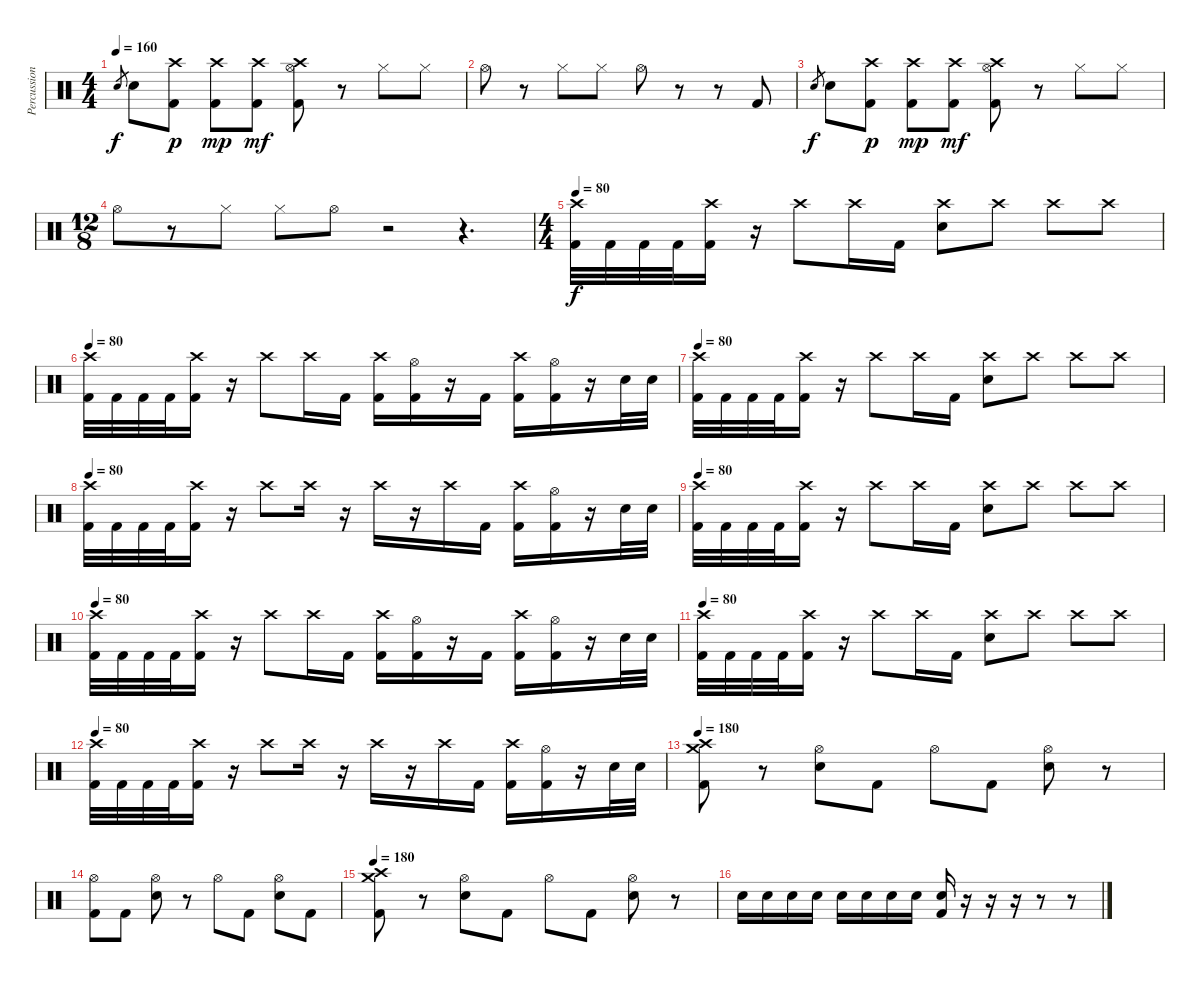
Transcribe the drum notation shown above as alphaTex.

\track ("Percussion" "Percussion") {instrument percussion}
\staff {score}
\articulation defaults
\ts (4 4)
\tempo 160
\clef neutral
\ks c "Electric Snare (hit)".8{gr dy f} "Electric Snare (hit)".8
("Crash high (hit)" "Kick (hit) 2").8{dy p} ("Crash high (hit)" "Kick (hit) 2").8{dy mp} ("Crash high (hit)" "Kick (hit) 2").8{dy mf} ("Crash high (hit)" "Hi-Hat (open)" "Kick (hit) 2").8 r.8 "Hi-Hat (closed)".8 "Hi-Hat (closed)".8 |
"Hi-Hat (open)".8 r.8 "Hi-Hat (closed)".8 "Hi-Hat (closed)".8 "Hi-Hat (open)".8 r.8 r.8 "Kick (hit) 2".8 |
"Electric Snare (hit)".8{gr dy f} "Electric Snare (hit)".8 ("Crash high (hit)" "Kick (hit) 2").8{dy p} ("Crash high (hit)" "Kick (hit) 2").8{dy mp} ("Crash high (hit)" "Kick (hit) 2").8{dy mf} ("Crash high (hit)" "Hi-Hat (open)" "Kick (hit) 2").8 r.8 "Hi-Hat (closed)".8 "Hi-Hat (closed)".8 |
\ts (12 8)
"Hi-Hat (open)".8 r.8 "Hi-Hat (closed)".8 "Hi-Hat (closed)".8 "Hi-Hat (open)".8 r.2 r.4{d} |
\ts (4 4)
\tempo 80
("Crash high (hit)" "Kick (hit) 2").32{dy f} "Kick (hit) 2".32 "Kick (hit) 2".32 "Kick (hit) 2".32 ("Crash high (hit)" "Kick (hit) 2").16 r.16 "Crash high (hit)".8 "Crash high (hit)".16 "Kick (hit) 2".16 ("Crash high (hit)" "Electric Snare (hit)").8 "Crash high (hit)".8 "Crash high (hit)".8 "Crash high (hit)".8 |
\tempo 80
("Crash high (hit)" "Kick (hit) 2").32 "Kick (hit) 2".32 "Kick (hit) 2".32 "Kick (hit) 2".32 ("Crash high (hit)" "Kick (hit) 2").16 r.16 "Crash high (hit)".8 "Crash high (hit)".16 "Kick (hit) 2".16 ("Crash high (hit)" "Kick (hit) 2").16 ("Hi-Hat (open)" "Kick (hit) 2").16 r.16 "Kick (hit) 2".16 ("Crash high (hit)" "Kick (hit) 2").16 ("Hi-Hat (open)" "Kick (hit) 2").16 r.16 "Electric Snare (hit)".32 "Electric Snare (hit)".32 |
\tempo 80
("Crash high (hit)" "Kick (hit) 2").32 "Kick (hit) 2".32 "Kick (hit) 2".32 "Kick (hit) 2".32 ("Crash high (hit)" "Kick (hit) 2").16 r.16 "Crash high (hit)".8 "Crash high (hit)".16 "Kick (hit) 2".16 ("Crash high (hit)" "Electric Snare (hit)").8 "Crash high (hit)".8 "Crash high (hit)".8 "Crash high (hit)".8 |
\tempo 80
("Crash high (hit)" "Kick (hit) 2").32 "Kick (hit) 2".32 "Kick (hit) 2".32 "Kick (hit) 2".32 ("Crash high (hit)" "Kick (hit) 2").16 r.16 "Crash high (hit)".8 "Crash high (hit)".16 r.16 "Crash high (hit)".16 r.16 "Crash high (hit)".16 "Kick (hit) 2".16 ("Crash high (hit)" "Kick (hit) 2").16 ("Hi-Hat (open)" "Kick (hit) 2").16 r.16 "Electric Snare (hit)".32 "Electric Snare (hit)".32 |
\tempo 80
("Crash high (hit)" "Kick (hit) 2").32 "Kick (hit) 2".32 "Kick (hit) 2".32 "Kick (hit) 2".32 ("Crash high (hit)" "Kick (hit) 2").16 r.16 "Crash high (hit)".8 "Crash high (hit)".16 "Kick (hit) 2".16 ("Crash high (hit)" "Electric Snare (hit)").8 "Crash high (hit)".8 "Crash high (hit)".8 "Crash high (hit)".8 |
\tempo 80
("Crash high (hit)" "Kick (hit) 2").32 "Kick (hit) 2".32 "Kick (hit) 2".32 "Kick (hit) 2".32 ("Crash high (hit)" "Kick (hit) 2").16 r.16 "Crash high (hit)".8 "Crash high (hit)".16 "Kick (hit) 2".16 ("Crash high (hit)" "Kick (hit) 2").16 ("Hi-Hat (open)" "Kick (hit) 2").16 r.16 "Kick (hit) 2".16 ("Crash high (hit)" "Kick (hit) 2").16 ("Hi-Hat (open)" "Kick (hit) 2").16 r.16 "Electric Snare (hit)".32 "Electric Snare (hit)".32 |
\tempo 80
("Crash high (hit)" "Kick (hit) 2").32 "Kick (hit) 2".32 "Kick (hit) 2".32 "Kick (hit) 2".32 ("Crash high (hit)" "Kick (hit) 2").16 r.16 "Crash high (hit)".8 "Crash high (hit)".16 "Kick (hit) 2".16 ("Crash high (hit)" "Electric Snare (hit)").8 "Crash high (hit)".8 "Crash high (hit)".8 "Crash high (hit)".8 |
\tempo 80
("Crash high (hit)" "Kick (hit) 2").32 "Kick (hit) 2".32 "Kick (hit) 2".32 "Kick (hit) 2".32 ("Crash high (hit)" "Kick (hit) 2").16 r.16 "Crash high (hit)".8 "Crash high (hit)".16 r.16 "Crash high (hit)".16 r.16 "Crash high (hit)".16 "Kick (hit) 2".16 ("Crash high (hit)" "Kick (hit) 2").16 ("Hi-Hat (open)" "Kick (hit) 2").16 r.16 "Electric Snare (hit)".32 "Electric Snare (hit)".32 |
\tempo 180
("Crash medium (hit)" "Crash high (hit)" "Kick (hit) 2").8 r.8 ("Hi-Hat (open)" "Electric Snare (hit)").8 "Kick (hit) 2".8 "Hi-Hat (open)".8 "Kick (hit) 2".8 ("Hi-Hat (open)" "Electric Snare (hit)").8 r.8 |
("Hi-Hat (open)" "Kick (hit) 2").8 "Kick (hit) 2".8 ("Hi-Hat (open)" "Electric Snare (hit)").8 r.8 "Hi-Hat (open)".8 "Kick (hit) 2".8 ("Hi-Hat (open)" "Electric Snare (hit)").8 "Kick (hit) 2".8 |
\tempo 180
("Crash medium (hit)" "Crash high (hit)" "Kick (hit) 2").8 r.8 ("Hi-Hat (open)" "Electric Snare (hit)").8 "Kick (hit) 2".8 "Hi-Hat (open)".8 "Kick (hit) 2".8 ("Hi-Hat (open)" "Electric Snare (hit)").8 r.8 |
"Electric Snare (hit)".16 "Electric Snare (hit)".16 "Electric Snare (hit)".16 "Electric Snare (hit)".16 "Electric Snare (hit)".16 "Electric Snare (hit)".16 "Electric Snare (hit)".16 "Electric Snare (hit)".16 ("Electric Snare (hit)" "Kick (hit) 2").16 r.16 r.16 r.16 r.8 r.8
